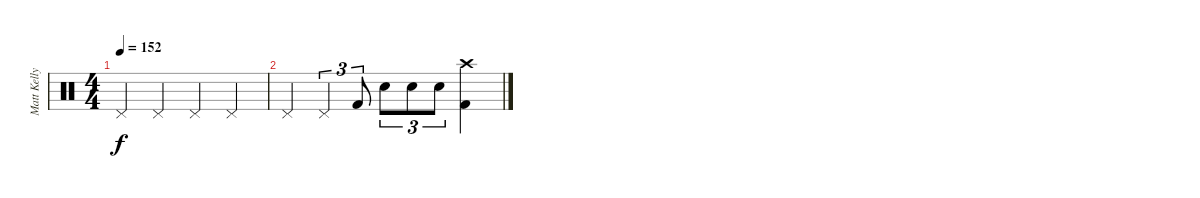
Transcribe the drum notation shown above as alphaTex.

\track ("Matt Kelly (Drums)" "Matt Kelly") {instrument percussion}
\staff {score}
\articulation defaults
\ts (4 4)
\tempo 152
\clef neutral
\ks c "Pedal Hi-Hat (hit)".4{dy f} "Pedal Hi-Hat (hit)".4 "Pedal Hi-Hat (hit)".4 "Pedal Hi-Hat (hit)".4
|
"Pedal Hi-Hat (hit)".4 "Pedal Hi-Hat (hit)".4{tu (3 2)} "Kick (hit) 2".8{tu (3 2)} "Electric Snare (hit)".8{tu (3 2)} "Electric Snare (hit)".8{tu (3 2)} "Electric Snare (hit)".8{tu (3 2)} ("Crash high (hit)" "Kick (hit) 2").4
